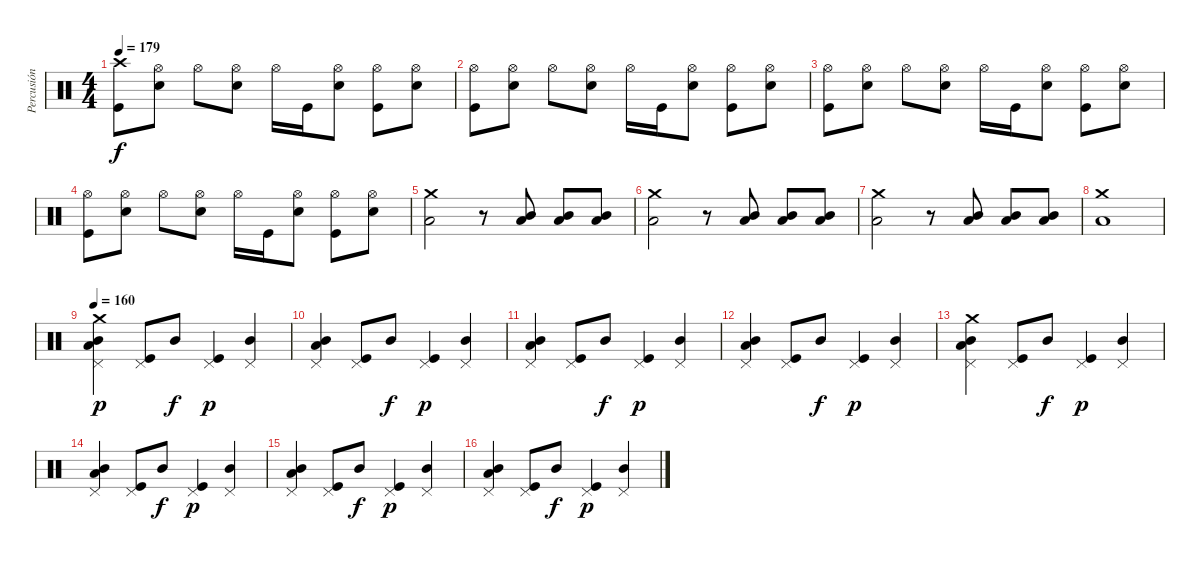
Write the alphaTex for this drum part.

\track ("Percusión" "Percusión") {instrument percussion}
\staff {score}
\articulation defaults
\ts (4 4)
\tempo 179
\clef neutral
\ks c
("Crash high (hit)" "Kick (hit)").8{dy f} ("Hi-Hat (open)" "Snare (hit) 2").8 "Hi-Hat (open)".8 ("Hi-Hat (open)" "Snare (hit) 2").8 "Hi-Hat (open)".16 "Kick (hit)".16 ("Hi-Hat (open)" "Snare (hit) 2").8 ("Hi-Hat (open)" "Kick (hit)").8 ("Hi-Hat (open)" "Snare (hit) 2").8 |
("Hi-Hat (open)" "Kick (hit)").8 ("Hi-Hat (open)" "Snare (hit) 2").8 "Hi-Hat (open)".8 ("Hi-Hat (open)" "Snare (hit) 2").8 "Hi-Hat (open)".16 "Kick (hit)".16 ("Hi-Hat (open)" "Snare (hit) 2").8 ("Hi-Hat (open)" "Kick (hit)").8 ("Hi-Hat (open)" "Snare (hit) 2").8 |
("Hi-Hat (open)" "Kick (hit)").8 ("Hi-Hat (open)" "Snare (hit) 2").8 "Hi-Hat (open)".8 ("Hi-Hat (open)" "Snare (hit) 2").8 "Hi-Hat (open)".16 "Kick (hit)".16 ("Hi-Hat (open)" "Snare (hit) 2").8 ("Hi-Hat (open)" "Kick (hit)").8 ("Hi-Hat (open)" "Snare (hit) 2").8 |
("Hi-Hat (open)" "Kick (hit)").8 ("Hi-Hat (open)" "Snare (hit) 2").8 "Hi-Hat (open)".8 ("Hi-Hat (open)" "Snare (hit) 2").8 "Hi-Hat (open)".16 "Kick (hit)".16 ("Hi-Hat (open)" "Snare (hit) 2").8 ("Hi-Hat (open)" "Kick (hit)").8 ("Hi-Hat (open)" "Snare (hit) 2").8 |
("Crash medium (hit)" "Low Tom (hit)").2 r.8 ("Mid Tom (hit)" "Low Tom (hit)").8 ("Mid Tom (hit)" "Low Tom (hit)").8 ("Mid Tom (hit)" "Low Tom (hit)").8 |
("Crash medium (hit)" "Low Tom (hit)").2 r.8 ("Mid Tom (hit)" "Low Tom (hit)").8 ("Mid Tom (hit)" "Low Tom (hit)").8 ("Mid Tom (hit)" "Low Tom (hit)").8 |
("Crash medium (hit)" "Low Tom (hit)").2 r.8 ("Mid Tom (hit)" "Low Tom (hit)").8 ("Mid Tom (hit)" "Low Tom (hit)").8 ("Mid Tom (hit)" "Low Tom (hit)").8 |
("Crash medium (hit)" "Low Tom (hit)").1 |
\tempo 160
("Crash medium (hit)" "Pedal Hi-Hat (hit)" "Mid Tom (hit)" "Low Tom (hit)").4{dy p} ("Pedal Hi-Hat (hit)" "Kick (hit)").8 "Mid Tom (hit)".8{dy f} ("Pedal Hi-Hat (hit)" "Kick (hit)").4{dy p} ("Pedal Hi-Hat (hit)" "Mid Tom (hit)").4 |
("Pedal Hi-Hat (hit)" "Mid Tom (hit)" "Low Tom (hit)").4 ("Pedal Hi-Hat (hit)" "Kick (hit)").8 "Mid Tom (hit)".8{dy f} ("Pedal Hi-Hat (hit)" "Kick (hit)").4{dy p} ("Pedal Hi-Hat (hit)" "Mid Tom (hit)").4 |
("Pedal Hi-Hat (hit)" "Mid Tom (hit)" "Low Tom (hit)").4 ("Pedal Hi-Hat (hit)" "Kick (hit)").8 "Mid Tom (hit)".8{dy f} ("Pedal Hi-Hat (hit)" "Kick (hit)").4{dy p} ("Pedal Hi-Hat (hit)" "Mid Tom (hit)").4 |
("Pedal Hi-Hat (hit)" "Mid Tom (hit)" "Low Tom (hit)").4 ("Pedal Hi-Hat (hit)" "Kick (hit)").8 "Mid Tom (hit)".8{dy f} ("Pedal Hi-Hat (hit)" "Kick (hit)").4{dy p} ("Pedal Hi-Hat (hit)" "Mid Tom (hit)").4 |
("Crash medium (hit)" "Pedal Hi-Hat (hit)" "Mid Tom (hit)" "Low Tom (hit)").4 ("Pedal Hi-Hat (hit)" "Kick (hit)").8 "Mid Tom (hit)".8{dy f} ("Pedal Hi-Hat (hit)" "Kick (hit)").4{dy p} ("Pedal Hi-Hat (hit)" "Mid Tom (hit)").4 |
("Pedal Hi-Hat (hit)" "Mid Tom (hit)" "Low Tom (hit)").4 ("Pedal Hi-Hat (hit)" "Kick (hit)").8 "Mid Tom (hit)".8{dy f} ("Pedal Hi-Hat (hit)" "Kick (hit)").4{dy p} ("Pedal Hi-Hat (hit)" "Mid Tom (hit)").4 |
("Pedal Hi-Hat (hit)" "Mid Tom (hit)" "Low Tom (hit)").4 ("Pedal Hi-Hat (hit)" "Kick (hit)").8 "Mid Tom (hit)".8{dy f} ("Pedal Hi-Hat (hit)" "Kick (hit)").4{dy p} ("Pedal Hi-Hat (hit)" "Mid Tom (hit)").4 |
("Pedal Hi-Hat (hit)" "Mid Tom (hit)" "Low Tom (hit)").4 ("Pedal Hi-Hat (hit)" "Kick (hit)").8 "Mid Tom (hit)".8{dy f} ("Pedal Hi-Hat (hit)" "Kick (hit)").4{dy p} ("Pedal Hi-Hat (hit)" "Mid Tom (hit)").4
